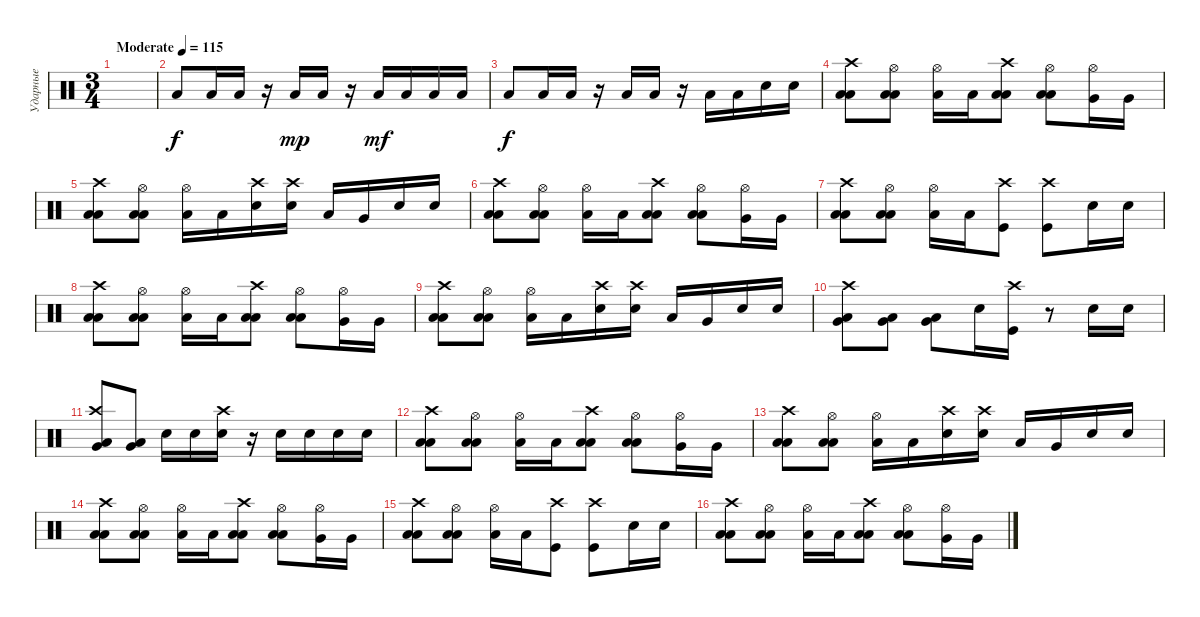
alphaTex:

\track ("Ударные" "Ударные") {instrument percussion}
\staff {score}
\articulation defaults
\ts (3 4)
\tempo (115 "Moderate")
\clef neutral
\ks c
|
"Low Floor Tom (hit)".8 "Low Floor Tom (hit)".16 "Low Floor Tom (hit)".16 r.16 "Low Floor Tom (hit)".16{dy mp} "Low Floor Tom (hit)".16 r.16 "Low Floor Tom (hit)".16{dy mf} "Low Floor Tom (hit)".16 "Low Floor Tom (hit)".16 "Low Floor Tom (hit)".16 |
"Low Floor Tom (hit)".8{dy f} "Low Floor Tom (hit)".16 "Low Floor Tom (hit)".16 r.16 "Low Floor Tom (hit)".16 "Low Floor Tom (hit)".16 r.16 "Low Floor Tom (hit)".16 "Low Floor Tom (hit)".16 "Snare (hit) 2".16 "Snare (hit) 2".16 |
("Crash high (hit)" "Low Tom (hit)" "Low Floor Tom (hit)").8 ("Hi-Hat (open)" "Low Tom (hit)" "Low Floor Tom (hit)").8 ("Hi-Hat (open)" "Low Tom (hit)").16 "Low Tom (hit)".16 ("Crash high (hit)" "Low Tom (hit)" "Low Floor Tom (hit)").8 ("Hi-Hat (open)" "Low Tom (hit)" "Low Floor Tom (hit)").8 ("Hi-Hat (open)" "Very Low Tom (hit)").16 "Very Low Tom (hit)".16 |
("Crash high (hit)" "Low Tom (hit)" "Low Floor Tom (hit)").8 ("Hi-Hat (open)" "Low Tom (hit)" "Low Floor Tom (hit)").8 ("Hi-Hat (open)" "Low Floor Tom (hit)").16 "Low Floor Tom (hit)".16 ("Crash high (hit)" "Snare (hit) 2").16 ("Crash high (hit)" "Snare (hit) 2").16 "Low Tom (hit)".16 "Very Low Tom (hit)".16 "Snare (hit) 2".16 "Snare (hit) 2".16 |
("Crash high (hit)" "Low Tom (hit)" "Low Floor Tom (hit)").8 ("Hi-Hat (open)" "Low Tom (hit)" "Low Floor Tom (hit)").8 ("Hi-Hat (open)" "Low Tom (hit)").16 "Low Tom (hit)".16 ("Crash high (hit)" "Low Tom (hit)" "Low Floor Tom (hit)").8 ("Hi-Hat (open)" "Low Tom (hit)" "Low Floor Tom (hit)").8 ("Hi-Hat (open)" "Very Low Tom (hit)").16 "Very Low Tom (hit)".16 |
("Crash high (hit)" "Low Tom (hit)" "Low Floor Tom (hit)").8 ("Hi-Hat (open)" "Low Tom (hit)" "Low Floor Tom (hit)").8 ("Hi-Hat (open)" "Low Floor Tom (hit)").16 "Low Floor Tom (hit)".16 ("Crash high (hit)" "Kick (hit)").8 ("Crash high (hit)" "Kick (hit)").8 "Snare (hit) 2".16 "Snare (hit) 2".16 |
("Crash high (hit)" "Low Tom (hit)" "Low Floor Tom (hit)").8 ("Hi-Hat (open)" "Low Tom (hit)" "Low Floor Tom (hit)").8 ("Hi-Hat (open)" "Low Tom (hit)").16 "Low Tom (hit)".16 ("Crash high (hit)" "Low Tom (hit)" "Low Floor Tom (hit)").8 ("Hi-Hat (open)" "Low Tom (hit)" "Low Floor Tom (hit)").8 ("Hi-Hat (open)" "Very Low Tom (hit)").16 "Very Low Tom (hit)".16 |
("Crash high (hit)" "Low Tom (hit)" "Low Floor Tom (hit)").8 ("Hi-Hat (open)" "Low Tom (hit)" "Low Floor Tom (hit)").8 ("Hi-Hat (open)" "Low Floor Tom (hit)").16 "Low Floor Tom (hit)".16 ("Crash high (hit)" "Snare (hit) 2").16 ("Crash high (hit)" "Snare (hit) 2").16 "Low Tom (hit)".16 "Very Low Tom (hit)".16 "Snare (hit) 2".16 "Snare (hit) 2".16 |
("Crash high (hit)" "Low Tom (hit)" "Very Low Tom (hit)").8 ("Low Tom (hit)" "Very Low Tom (hit)").8 ("Very Low Tom (hit)" "Low Floor Tom (hit)").8 "Snare (hit) 2".16 ("Crash high (hit)" "Kick (hit)").16 r.8 "Snare (hit) 2".16 "Snare (hit) 2".16 |
("Crash high (hit)" "Very Low Tom (hit)" "Low Floor Tom (hit)").8 ("Very Low Tom (hit)" "Low Floor Tom (hit)").8 "Snare (hit) 2".16 "Snare (hit) 2".16 ("Crash high (hit)" "Snare (hit) 2").16 r.16 "Snare (hit) 2".16 "Snare (hit) 2".16 "Snare (hit) 2".16 "Snare (hit) 2".16 |
("Crash high (hit)" "Low Tom (hit)" "Low Floor Tom (hit)").8 ("Hi-Hat (open)" "Low Tom (hit)" "Low Floor Tom (hit)").8 ("Hi-Hat (open)" "Low Tom (hit)").16 "Low Tom (hit)".16 ("Crash high (hit)" "Low Tom (hit)" "Low Floor Tom (hit)").8 ("Hi-Hat (open)" "Low Tom (hit)" "Low Floor Tom (hit)").8 ("Hi-Hat (open)" "Very Low Tom (hit)").16 "Very Low Tom (hit)".16 |
("Crash high (hit)" "Low Tom (hit)" "Low Floor Tom (hit)").8 ("Hi-Hat (open)" "Low Tom (hit)" "Low Floor Tom (hit)").8 ("Hi-Hat (open)" "Low Floor Tom (hit)").16 "Low Floor Tom (hit)".16 ("Crash high (hit)" "Snare (hit) 2").16 ("Crash high (hit)" "Snare (hit) 2").16 "Low Tom (hit)".16 "Very Low Tom (hit)".16 "Snare (hit) 2".16 "Snare (hit) 2".16 |
("Crash high (hit)" "Low Tom (hit)" "Low Floor Tom (hit)").8 ("Hi-Hat (open)" "Low Tom (hit)" "Low Floor Tom (hit)").8 ("Hi-Hat (open)" "Low Tom (hit)").16 "Low Tom (hit)".16 ("Crash high (hit)" "Low Tom (hit)" "Low Floor Tom (hit)").8 ("Hi-Hat (open)" "Low Tom (hit)" "Low Floor Tom (hit)").8 ("Hi-Hat (open)" "Very Low Tom (hit)").16 "Very Low Tom (hit)".16 |
("Crash high (hit)" "Low Tom (hit)" "Low Floor Tom (hit)").8 ("Hi-Hat (open)" "Low Tom (hit)" "Low Floor Tom (hit)").8 ("Hi-Hat (open)" "Low Floor Tom (hit)").16 "Low Floor Tom (hit)".16 ("Crash high (hit)" "Kick (hit)").8 ("Crash high (hit)" "Kick (hit)").8 "Snare (hit) 2".16 "Snare (hit) 2".16 |
("Crash high (hit)" "Low Tom (hit)" "Low Floor Tom (hit)").8 ("Hi-Hat (open)" "Low Tom (hit)" "Low Floor Tom (hit)").8 ("Hi-Hat (open)" "Low Tom (hit)").16 "Low Tom (hit)".16 ("Crash high (hit)" "Low Tom (hit)" "Low Floor Tom (hit)").8 ("Hi-Hat (open)" "Low Tom (hit)" "Low Floor Tom (hit)").8 ("Hi-Hat (open)" "Very Low Tom (hit)").16 "Very Low Tom (hit)".16
